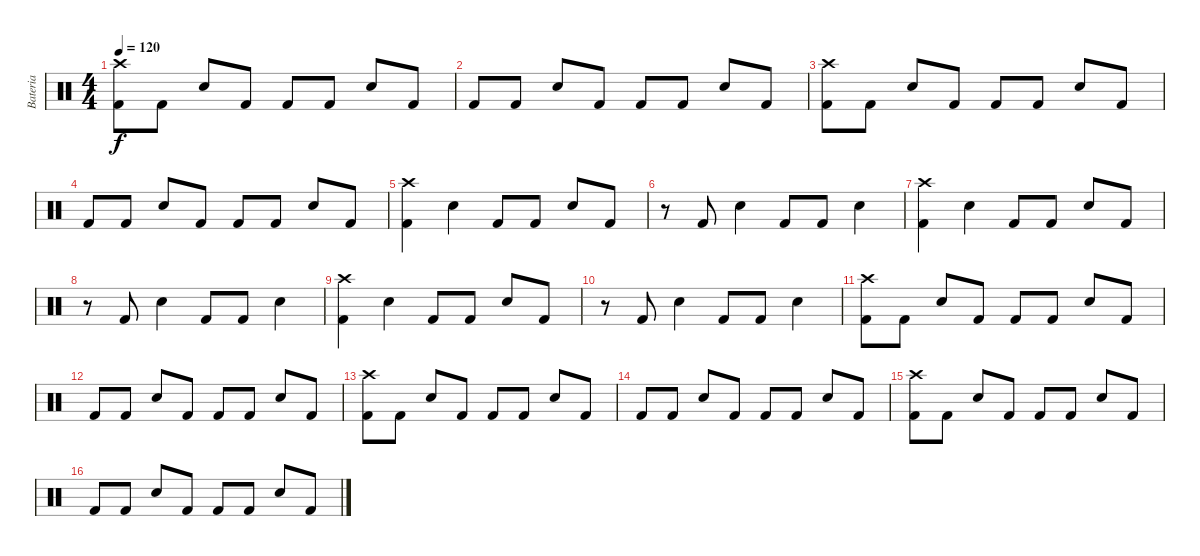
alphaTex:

\track ("Bateria" "Bateria") {instrument percussion}
\staff {score}
\articulation defaults
\ts (4 4)
\tempo 120
\clef neutral
\ks c
("Kick (hit) 2" "Crash high (hit)").8{dy f} "Kick (hit) 2".8 "Snare (hit) 2".8 "Kick (hit) 2".8 "Kick (hit) 2".8 "Kick (hit) 2".8 "Snare (hit) 2".8 "Kick (hit) 2".8 |
"Kick (hit) 2".8 "Kick (hit) 2".8 "Snare (hit) 2".8 "Kick (hit) 2".8 "Kick (hit) 2".8 "Kick (hit) 2".8 "Snare (hit) 2".8 "Kick (hit) 2".8 |
("Kick (hit) 2" "Crash high (hit)").8 "Kick (hit) 2".8 "Snare (hit) 2".8 "Kick (hit) 2".8 "Kick (hit) 2".8 "Kick (hit) 2".8 "Snare (hit) 2".8 "Kick (hit) 2".8 |
"Kick (hit) 2".8 "Kick (hit) 2".8 "Snare (hit) 2".8 "Kick (hit) 2".8 "Kick (hit) 2".8 "Kick (hit) 2".8 "Snare (hit) 2".8 "Kick (hit) 2".8 |
("Kick (hit) 2" "Crash high (hit)").4 "Snare (hit) 2".4 "Kick (hit) 2".8 "Kick (hit) 2".8 "Snare (hit) 2".8 "Kick (hit) 2".8 |
r.8 "Kick (hit) 2".8 "Snare (hit) 2".4 "Kick (hit) 2".8 "Kick (hit) 2".8 "Snare (hit) 2".4 |
("Kick (hit) 2" "Crash high (hit)").4 "Snare (hit) 2".4 "Kick (hit) 2".8 "Kick (hit) 2".8 "Snare (hit) 2".8 "Kick (hit) 2".8 |
r.8 "Kick (hit) 2".8 "Snare (hit) 2".4 "Kick (hit) 2".8 "Kick (hit) 2".8 "Snare (hit) 2".4 |
("Kick (hit) 2" "Crash high (hit)").4 "Snare (hit) 2".4 "Kick (hit) 2".8 "Kick (hit) 2".8 "Snare (hit) 2".8 "Kick (hit) 2".8 |
r.8 "Kick (hit) 2".8 "Snare (hit) 2".4 "Kick (hit) 2".8 "Kick (hit) 2".8 "Snare (hit) 2".4 |
("Kick (hit) 2" "Crash high (hit)").8 "Kick (hit) 2".8 "Snare (hit) 2".8 "Kick (hit) 2".8 "Kick (hit) 2".8 "Kick (hit) 2".8 "Snare (hit) 2".8 "Kick (hit) 2".8 |
"Kick (hit) 2".8 "Kick (hit) 2".8 "Snare (hit) 2".8 "Kick (hit) 2".8 "Kick (hit) 2".8 "Kick (hit) 2".8 "Snare (hit) 2".8 "Kick (hit) 2".8 |
("Kick (hit) 2" "Crash high (hit)").8 "Kick (hit) 2".8 "Snare (hit) 2".8 "Kick (hit) 2".8 "Kick (hit) 2".8 "Kick (hit) 2".8 "Snare (hit) 2".8 "Kick (hit) 2".8 |
"Kick (hit) 2".8 "Kick (hit) 2".8 "Snare (hit) 2".8 "Kick (hit) 2".8 "Kick (hit) 2".8 "Kick (hit) 2".8 "Snare (hit) 2".8 "Kick (hit) 2".8 |
("Kick (hit) 2" "Crash high (hit)").8 "Kick (hit) 2".8 "Snare (hit) 2".8 "Kick (hit) 2".8 "Kick (hit) 2".8 "Kick (hit) 2".8 "Snare (hit) 2".8 "Kick (hit) 2".8 |
"Kick (hit) 2".8 "Kick (hit) 2".8 "Snare (hit) 2".8 "Kick (hit) 2".8 "Kick (hit) 2".8 "Kick (hit) 2".8 "Snare (hit) 2".8 "Kick (hit) 2".8
